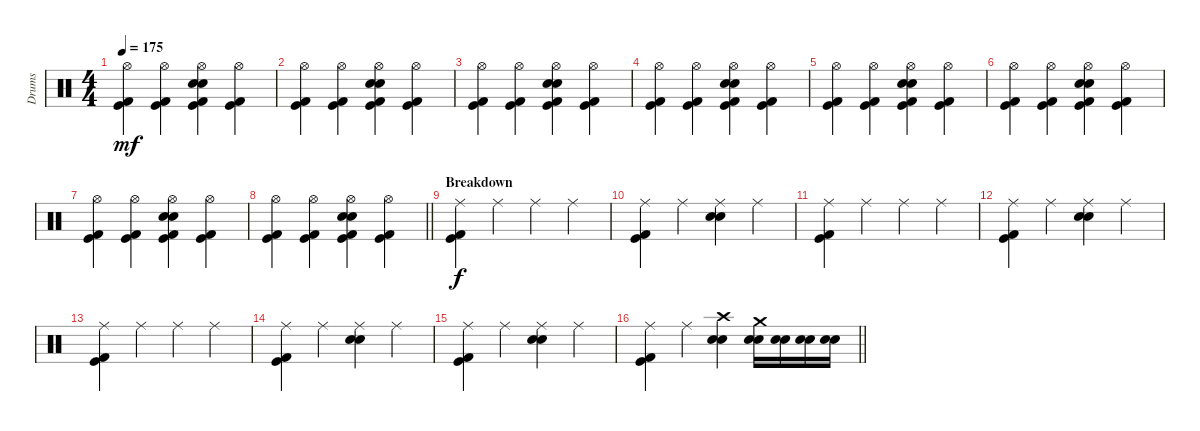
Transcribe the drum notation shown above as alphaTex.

\track ("Drums" "Drums") {instrument percussion}
\staff {score}
\articulation defaults
\ts (4 4)
\tempo 175
\clef neutral
\ks c
("Hi-Hat (open)" "Kick (hit) 2" "Kick (hit)").4{dy mf} ("Hi-Hat (open)" "Kick (hit) 2" "Kick (hit)").4 ("Hi-Hat (open)" "Electric Snare (hit)" "Electric Snare (hit)" "Kick (hit) 2" "Kick (hit)").4 ("Hi-Hat (open)" "Kick (hit) 2" "Kick (hit)").4 |
("Hi-Hat (open)" "Kick (hit) 2" "Kick (hit)").4 ("Hi-Hat (open)" "Kick (hit) 2" "Kick (hit)").4 ("Hi-Hat (open)" "Electric Snare (hit)" "Electric Snare (hit)" "Kick (hit) 2" "Kick (hit)").4 ("Hi-Hat (open)" "Kick (hit) 2" "Kick (hit)").4 |
("Hi-Hat (open)" "Kick (hit) 2" "Kick (hit)").4 ("Hi-Hat (open)" "Kick (hit) 2" "Kick (hit)").4 ("Hi-Hat (open)" "Electric Snare (hit)" "Electric Snare (hit)" "Kick (hit) 2" "Kick (hit)").4 ("Hi-Hat (open)" "Kick (hit) 2" "Kick (hit)").4 |
("Hi-Hat (open)" "Kick (hit) 2" "Kick (hit)").4 ("Hi-Hat (open)" "Kick (hit) 2" "Kick (hit)").4 ("Hi-Hat (open)" "Electric Snare (hit)" "Electric Snare (hit)" "Kick (hit) 2" "Kick (hit)").4 ("Hi-Hat (open)" "Kick (hit) 2" "Kick (hit)").4 |
("Hi-Hat (open)" "Kick (hit) 2" "Kick (hit)").4 ("Hi-Hat (open)" "Kick (hit) 2" "Kick (hit)").4 ("Hi-Hat (open)" "Electric Snare (hit)" "Electric Snare (hit)" "Kick (hit) 2" "Kick (hit)").4 ("Hi-Hat (open)" "Kick (hit) 2" "Kick (hit)").4 |
("Hi-Hat (open)" "Kick (hit) 2" "Kick (hit)").4 ("Hi-Hat (open)" "Kick (hit) 2" "Kick (hit)").4 ("Hi-Hat (open)" "Electric Snare (hit)" "Electric Snare (hit)" "Kick (hit) 2" "Kick (hit)").4 ("Hi-Hat (open)" "Kick (hit) 2" "Kick (hit)").4 |
("Hi-Hat (open)" "Kick (hit) 2" "Kick (hit)").4 ("Hi-Hat (open)" "Kick (hit) 2" "Kick (hit)").4 ("Hi-Hat (open)" "Electric Snare (hit)" "Electric Snare (hit)" "Kick (hit) 2" "Kick (hit)").4 ("Hi-Hat (open)" "Kick (hit) 2" "Kick (hit)").4 |
\barLineRight lightlight
("Hi-Hat (open)" "Kick (hit) 2" "Kick (hit)").4 ("Hi-Hat (open)" "Kick (hit) 2" "Kick (hit)").4 ("Hi-Hat (open)" "Electric Snare (hit)" "Electric Snare (hit)" "Kick (hit) 2" "Kick (hit)").4 ("Hi-Hat (open)" "Kick (hit) 2" "Kick (hit)").4 |
\section ("" "Breakdown")
("Ride (middle)" "Kick (hit) 2" "Kick (hit)").4{dy f} "Ride (middle)".4 "Ride (middle)".4 "Ride (middle)".4 |
("Ride (middle)" "Kick (hit) 2" "Kick (hit)").4 "Ride (middle)".4 ("Ride (middle)" "Electric Snare (hit)" "Electric Snare (hit)").4 "Ride (middle)".4 |
("Ride (middle)" "Kick (hit) 2" "Kick (hit)").4 "Ride (middle)".4 "Ride (middle)".4 "Ride (middle)".4 |
("Ride (middle)" "Kick (hit) 2" "Kick (hit)").4 "Ride (middle)".4 ("Ride (middle)" "Electric Snare (hit)" "Electric Snare (hit)").4 "Ride (middle)".4 |
("Ride (middle)" "Kick (hit) 2" "Kick (hit)").4 "Ride (middle)".4 "Ride (middle)".4 "Ride (middle)".4 |
("Ride (middle)" "Kick (hit) 2" "Kick (hit)").4 "Ride (middle)".4 ("Ride (middle)" "Electric Snare (hit)" "Electric Snare (hit)").4 "Ride (middle)".4 |
("Ride (middle)" "Kick (hit) 2" "Kick (hit)").4 "Ride (middle)".4 ("Ride (middle)" "Electric Snare (hit)" "Electric Snare (hit)").4 "Ride (middle)".4 |
\barLineRight lightlight
("Ride (middle)" "Kick (hit) 2" "Kick (hit)").4 "Ride (middle)".4 ("Crash high (hit)" "Electric Snare (hit)" "Electric Snare (hit)").4 ("Crash medium (hit)" "Electric Snare (hit)" "Electric Snare (hit)").16 ("Electric Snare (hit)" "Electric Snare (hit)").16 ("Electric Snare (hit)" "Electric Snare (hit)").16 ("Electric Snare (hit)" "Electric Snare (hit)").16
